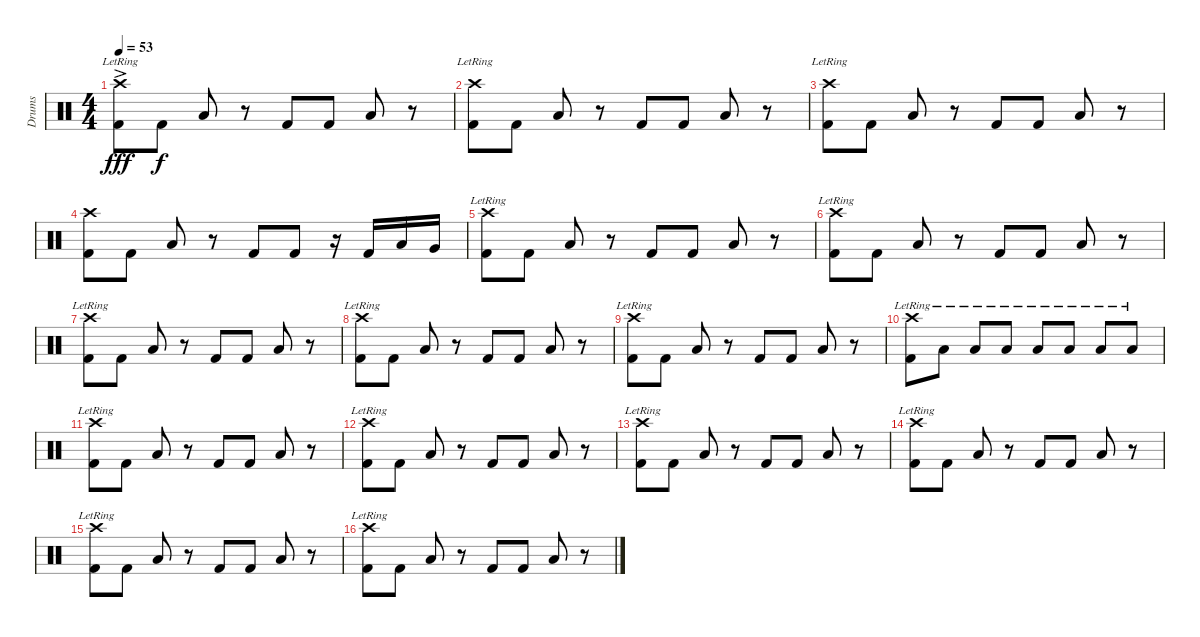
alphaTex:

\track ("Drums" "Drums") {instrument percussion}
\staff {score}
\articulation defaults
\ts (4 4)
\tempo 53
\clef neutral
\ks c
("Crash high (hit)"{ac lr} "Kick (hit) 2"{ac}).8{dy fff volume 16} "Kick (hit) 2".8{dy f volume 16} "Low Floor Tom (hit)".8{volume 16} r.8 "Kick (hit) 2".8{volume 16} "Kick (hit) 2".8{volume 16} "Low Floor Tom (hit)".8{volume 16} r.8 |
("Crash high (hit)"{lr} "Kick (hit) 2").8{volume 16} "Kick (hit) 2".8{volume 16} "Low Floor Tom (hit)".8{volume 16} r.8 "Kick (hit) 2".8{volume 16} "Kick (hit) 2".8{volume 16} "Low Floor Tom (hit)".8{volume 16} r.8 |
("Crash high (hit)"{lr} "Kick (hit) 2").8{volume 16} "Kick (hit) 2".8{volume 16} "Low Floor Tom (hit)".8{volume 16} r.8 "Kick (hit) 2".8{volume 16} "Kick (hit) 2".8{volume 16} "Low Floor Tom (hit)".8{volume 16} r.8 |
("Crash high (hit)" "Kick (hit) 2").8{volume 16} "Kick (hit) 2".8{volume 16} "Low Floor Tom (hit)".8{volume 16} r.8 "Kick (hit) 2".8{volume 16} "Kick (hit) 2".8{volume 16} r.16 "Kick (hit) 2".16{volume 16} "Low Floor Tom (hit)".16{volume 16} "Very Low Tom (hit)".16{volume 16} |
("Crash high (hit)"{lr} "Kick (hit) 2").8{volume 16} "Kick (hit) 2".8{volume 16} "Low Floor Tom (hit)".8{volume 16} r.8 "Kick (hit) 2".8{volume 16} "Kick (hit) 2".8{volume 16} "Low Floor Tom (hit)".8{volume 16} r.8 |
("Crash high (hit)"{lr} "Kick (hit) 2").8{volume 16} "Kick (hit) 2".8{volume 16} "Low Floor Tom (hit)".8{volume 16} r.8 "Kick (hit) 2".8{volume 16} "Kick (hit) 2".8{volume 16} "Low Floor Tom (hit)".8{volume 16} r.8 |
("Crash high (hit)"{lr} "Kick (hit) 2").8{volume 16} "Kick (hit) 2".8{volume 16} "Low Floor Tom (hit)".8{volume 16} r.8 "Kick (hit) 2".8{volume 16} "Kick (hit) 2".8{volume 16} "Low Floor Tom (hit)".8{volume 16} r.8 |
("Crash high (hit)"{lr} "Kick (hit) 2").8{volume 16} "Kick (hit) 2".8{volume 16} "Low Floor Tom (hit)".8{volume 16} r.8 "Kick (hit) 2".8{volume 16} "Kick (hit) 2".8{volume 16} "Low Floor Tom (hit)".8{volume 16} r.8 |
("Crash high (hit)"{lr} "Kick (hit) 2").8{volume 16} "Kick (hit) 2".8{volume 16} "Low Floor Tom (hit)".8{volume 16} r.8 "Kick (hit) 2".8{volume 16} "Kick (hit) 2".8{volume 16} "Low Floor Tom (hit)".8{volume 16} r.8 |
("Crash high (hit)"{lr} "Kick (hit) 2").8{volume 16} "Low Floor Tom (hit)"{lr}.8{volume 16} "Low Floor Tom (hit)"{lr}.8{volume 16} "Low Floor Tom (hit)"{lr}.8{volume 16} "Low Floor Tom (hit)"{lr}.8{volume 16} "Low Floor Tom (hit)"{lr}.8{volume 16} "Low Floor Tom (hit)"{lr}.8{volume 16} "Low Floor Tom (hit)"{lr}.8{volume 16} |
("Crash high (hit)"{lr} "Kick (hit) 2").8{volume 16} "Kick (hit) 2".8{volume 16} "Low Floor Tom (hit)".8{volume 16} r.8 "Kick (hit) 2".8{volume 16} "Kick (hit) 2".8{volume 16} "Low Floor Tom (hit)".8{volume 16} r.8 |
("Crash high (hit)"{lr} "Kick (hit) 2").8{volume 16} "Kick (hit) 2".8{volume 16} "Low Floor Tom (hit)".8{volume 16} r.8 "Kick (hit) 2".8{volume 16} "Kick (hit) 2".8{volume 16} "Low Floor Tom (hit)".8{volume 16} r.8 |
("Crash high (hit)"{lr} "Kick (hit) 2").8{volume 16} "Kick (hit) 2".8{volume 16} "Low Floor Tom (hit)".8{volume 16} r.8 "Kick (hit) 2".8{volume 16} "Kick (hit) 2".8{volume 16} "Low Floor Tom (hit)".8{volume 16} r.8 |
("Crash high (hit)"{lr} "Kick (hit) 2").8{volume 16} "Kick (hit) 2".8{volume 16} "Low Floor Tom (hit)".8{volume 16} r.8 "Kick (hit) 2".8{volume 16} "Kick (hit) 2".8{volume 16} "Low Floor Tom (hit)".8{volume 16} r.8 |
("Crash high (hit)"{lr} "Kick (hit) 2").8{volume 16} "Kick (hit) 2".8{volume 16} "Low Floor Tom (hit)".8{volume 16} r.8 "Kick (hit) 2".8{volume 16} "Kick (hit) 2".8{volume 16} "Low Floor Tom (hit)".8{volume 16} r.8 |
("Crash high (hit)"{lr} "Kick (hit) 2").8{volume 16} "Kick (hit) 2".8{volume 16} "Low Floor Tom (hit)".8{volume 16} r.8 "Kick (hit) 2".8{volume 16} "Kick (hit) 2".8{volume 16} "Low Floor Tom (hit)".8{volume 16} r.8
